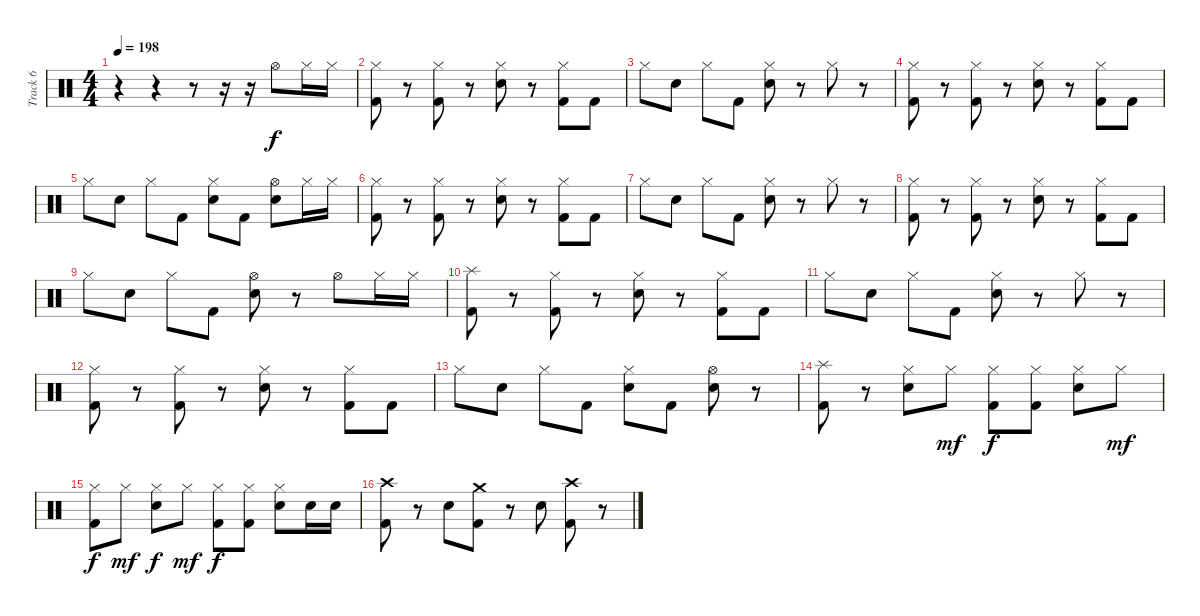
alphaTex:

\track ("Track 6" "Track 6") {instrument percussion}
\staff {score}
\articulation defaults
\ts (4 4)
\tempo 198
\clef neutral
\ks c
r.4{dy f} r.4 r.8 r.16 r.16 "Hi-Hat (open)".8 "Hi-Hat (closed)".16 "Hi-Hat (closed)".16 |
("Hi-Hat (closed)" "Kick (hit) 2").8 r.8 ("Hi-Hat (closed)" "Kick (hit) 2").8 r.8 ("Hi-Hat (closed)" "Electric Snare (hit)").8 r.8 ("Hi-Hat (closed)" "Kick (hit) 2").8 "Kick (hit) 2".8 |
"Hi-Hat (closed)".8 "Electric Snare (hit)".8 "Hi-Hat (closed)".8 "Kick (hit) 2".8 ("Hi-Hat (closed)" "Electric Snare (hit)").8 r.8 "Hi-Hat (closed)".8 r.8 |
("Hi-Hat (closed)" "Kick (hit) 2").8 r.8 ("Hi-Hat (closed)" "Kick (hit) 2").8 r.8 ("Hi-Hat (closed)" "Electric Snare (hit)").8 r.8 ("Hi-Hat (closed)" "Kick (hit) 2").8 "Kick (hit) 2".8 |
"Hi-Hat (closed)".8 "Electric Snare (hit)".8 "Hi-Hat (closed)".8 "Kick (hit) 2".8 ("Hi-Hat (closed)" "Electric Snare (hit)").8 "Kick (hit) 2".8 ("Hi-Hat (open)" "Electric Snare (hit)").8 "Hi-Hat (closed)".16 "Hi-Hat (closed)".16 |
("Hi-Hat (closed)" "Kick (hit) 2").8 r.8 ("Hi-Hat (closed)" "Kick (hit) 2").8 r.8 ("Hi-Hat (closed)" "Electric Snare (hit)").8 r.8 ("Hi-Hat (closed)" "Kick (hit) 2").8 "Kick (hit) 2".8 |
"Hi-Hat (closed)".8 "Electric Snare (hit)".8 "Hi-Hat (closed)".8 "Kick (hit) 2".8 ("Hi-Hat (closed)" "Electric Snare (hit)").8 r.8 "Hi-Hat (closed)".8 r.8 |
("Hi-Hat (closed)" "Kick (hit) 2").8 r.8 ("Hi-Hat (closed)" "Kick (hit) 2").8 r.8 ("Hi-Hat (closed)" "Electric Snare (hit)").8 r.8 ("Hi-Hat (closed)" "Kick (hit) 2").8 "Kick (hit) 2".8 |
"Hi-Hat (closed)".8 "Electric Snare (hit)".8 "Hi-Hat (closed)".8 "Kick (hit) 2".8 ("Hi-Hat (open)" "Electric Snare (hit)").8 r.8 "Hi-Hat (open)".8 "Hi-Hat (closed)".16 "Hi-Hat (closed)".16 |
("Splash (hit)" "Kick (hit) 2").8 r.8 ("Hi-Hat (closed)" "Kick (hit) 2").8 r.8 ("Hi-Hat (closed)" "Electric Snare (hit)").8 r.8 ("Hi-Hat (closed)" "Kick (hit) 2").8 "Kick (hit) 2".8 |
"Hi-Hat (closed)".8 "Electric Snare (hit)".8 "Hi-Hat (closed)".8 "Kick (hit) 2".8 ("Hi-Hat (closed)" "Electric Snare (hit)").8 r.8 "Hi-Hat (closed)".8 r.8 |
("Hi-Hat (closed)" "Kick (hit) 2").8 r.8 ("Hi-Hat (closed)" "Kick (hit) 2").8 r.8 ("Hi-Hat (closed)" "Electric Snare (hit)").8 r.8 ("Hi-Hat (closed)" "Kick (hit) 2").8 "Kick (hit) 2".8 |
"Hi-Hat (closed)".8 "Electric Snare (hit)".8 "Hi-Hat (closed)".8 "Kick (hit) 2".8 ("Hi-Hat (closed)" "Electric Snare (hit)").8 "Kick (hit) 2".8 ("Hi-Hat (open)" "Electric Snare (hit)").8 r.8 |
("Splash (hit)" "Kick (hit) 2").8 r.8 ("Hi-Hat (closed)" "Electric Snare (hit)").8 "Hi-Hat (closed)".8{dy mf} ("Hi-Hat (closed)" "Kick (hit) 2").8{dy f} ("Hi-Hat (closed)" "Kick (hit) 2").8 ("Hi-Hat (closed)" "Electric Snare (hit)").8 "Hi-Hat (closed)".8{dy mf} |
("Hi-Hat (closed)" "Kick (hit) 2").8{dy f} "Hi-Hat (closed)".8{dy mf} ("Hi-Hat (closed)" "Electric Snare (hit)").8{dy f} "Hi-Hat (closed)".8{dy mf} ("Hi-Hat (closed)" "Kick (hit) 2").8{dy f} ("Hi-Hat (closed)" "Kick (hit) 2").8 ("Hi-Hat (closed)" "Electric Snare (hit)").8 "Electric Snare (hit)".16 "Electric Snare (hit)".16 |
("Crash high (hit)" "Kick (hit) 2").8 r.8 "Electric Snare (hit)".8 ("Crash medium (hit)" "Kick (hit) 2").8 r.8 "Electric Snare (hit)".8 ("Crash high (hit)" "Kick (hit) 2").8 r.8
